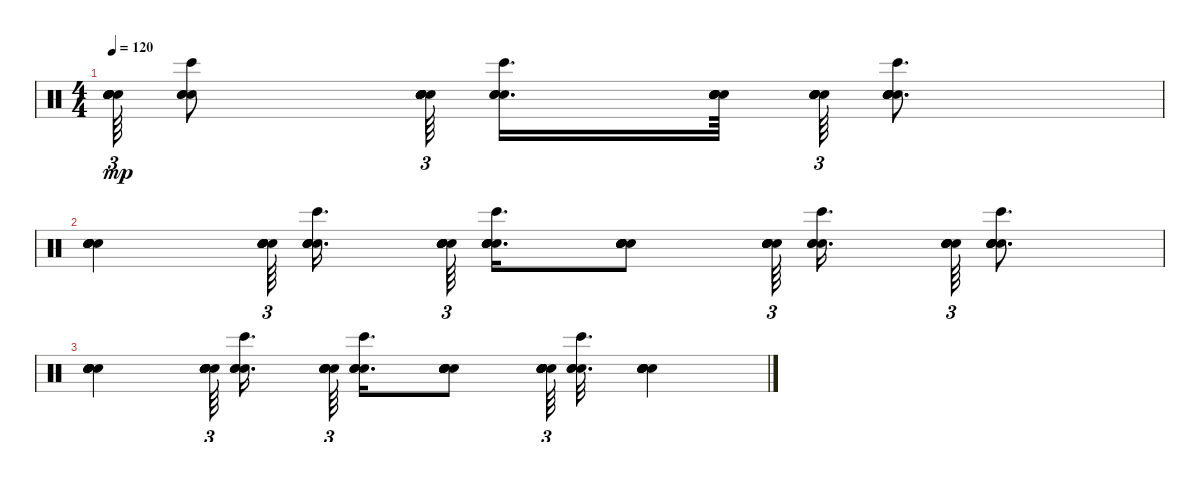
\track "" {instrument percussion}
\staff {score}
\articulation defaults
\ts (4 4)
\tempo 120
\clef neutral
\ks c
("Snare (hit)" "Snare (hit)" "Snare (hit)" "Snare (hit)" "Snare (hit)" "Snare (hit)").64{tu (3 2) dy mp} ("Snare (hit)" "Snare (hit)" "Snare (hit)" "Bongo High (hit)").8 ("Snare (hit)" "Snare (hit)" "Snare (hit)" "Snare (hit)" "Snare (hit)" "Snare (hit)").64{tu (3 2)} ("Snare (hit)" "Snare (hit)" "Snare (hit)" "Bongo High (hit)").16{d} ("Snare (hit)" "Snare (hit)" "Snare (hit)" "Snare (hit)" "Snare (hit)" "Snare (hit)").64 ("Snare (hit)" "Snare (hit)" "Snare (hit)" "Snare (hit)" "Snare (hit)").64{tu (3 2)} ("Snare (hit)" "Snare (hit)" "Snare (hit)" "Bongo High (hit)" "Snare (hit)" "Snare (hit)").8{d} |
("Snare (hit)" "Snare (hit)" "Snare (hit)" "Snare (hit)" "Snare (hit)" "Snare (hit)").4 ("Snare (hit)" "Snare (hit)" "Snare (hit)" "Snare (hit)" "Snare (hit)" "Snare (hit)").64{tu (3 2)} ("Snare (hit)" "Snare (hit)" "Snare (hit)" "Snare (hit)" "Bongo High (hit)").16{d} ("Snare (hit)" "Snare (hit)" "Snare (hit)" "Snare (hit)" "Snare (hit)").64{tu (3 2)} ("Snare (hit)" "Snare (hit)" "Snare (hit)" "Snare (hit)" "Snare (hit)" "Bongo High (hit)").16{d} ("Snare (hit)" "Snare (hit)" "Snare (hit)" "Snare (hit)" "Snare (hit)" "Snare (hit)").8 ("Snare (hit)" "Snare (hit)" "Snare (hit)" "Snare (hit)" "Snare (hit)" "Snare (hit)").64{tu (3 2)} ("Snare (hit)" "Snare (hit)" "Bongo High (hit)" "Snare (hit)").16{d} ("Snare (hit)" "Snare (hit)" "Snare (hit)" "Snare (hit)" "Snare (hit)").64{tu (3 2)} ("Snare (hit)" "Snare (hit)" "Snare (hit)" "Bongo High (hit)" "Snare (hit)" "Snare (hit)").8{d} |
("Snare (hit)" "Snare (hit)" "Snare (hit)" "Snare (hit)" "Snare (hit)" "Snare (hit)").4 ("Snare (hit)" "Snare (hit)" "Snare (hit)" "Snare (hit)" "Snare (hit)" "Snare (hit)").64{tu (3 2)} ("Snare (hit)" "Snare (hit)" "Snare (hit)" "Bongo High (hit)").16{d} ("Snare (hit)" "Snare (hit)" "Snare (hit)" "Snare (hit)" "Snare (hit)" "Snare (hit)").64{tu (3 2)} ("Snare (hit)" "Bongo High (hit)" "Snare (hit)" "Snare (hit)").16{d} ("Snare (hit)" "Snare (hit)" "Snare (hit)" "Snare (hit)" "Snare (hit)" "Snare (hit)").8 ("Snare (hit)" "Snare (hit)" "Snare (hit)" "Snare (hit)" "Snare (hit)" "Snare (hit)").64{tu (3 2)} ("Snare (hit)" "Snare (hit)" "Snare (hit)" "Bongo High (hit)").32{d} ("Snare (hit)" "Snare (hit)" "Snare (hit)" "Snare (hit)" "Snare (hit)" "Snare (hit)").4
